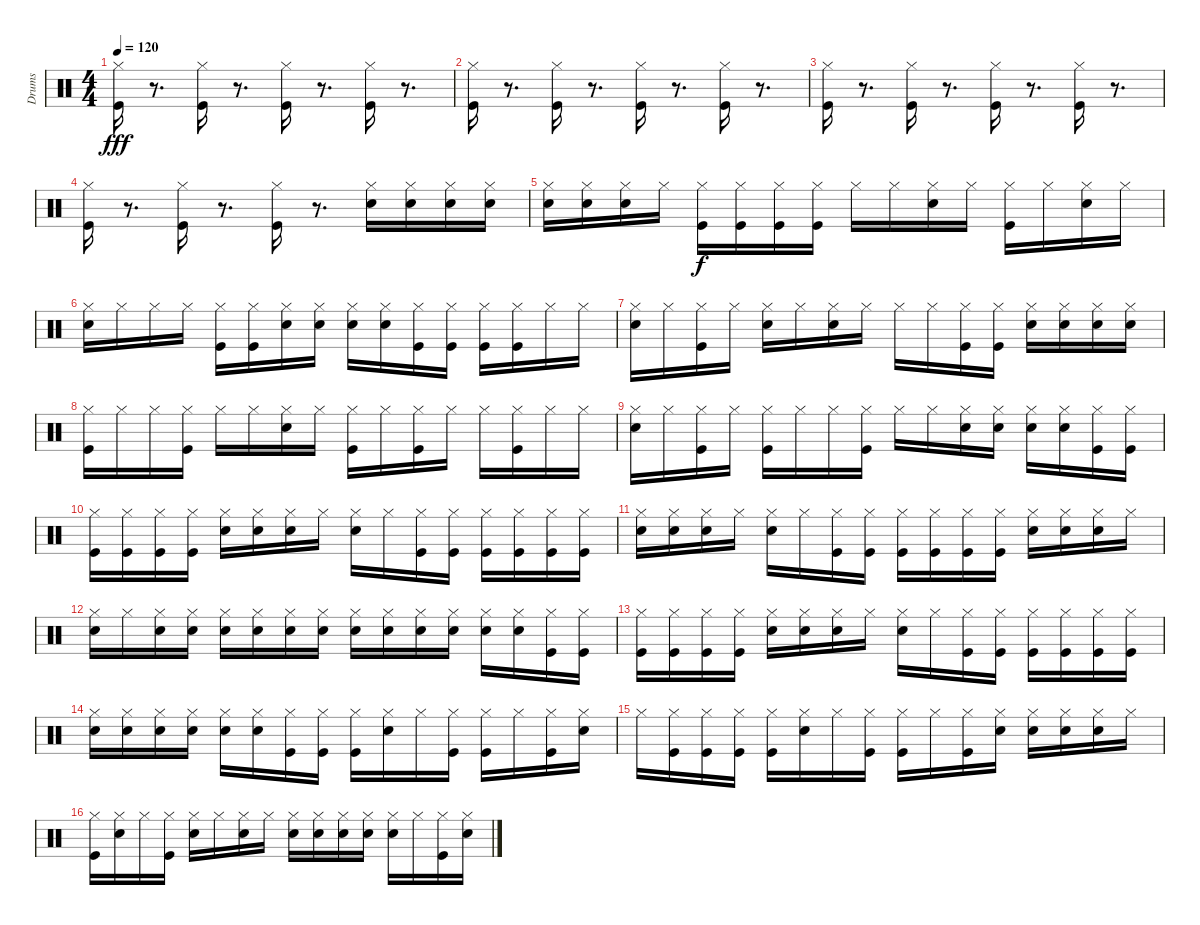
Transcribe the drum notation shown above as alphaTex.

\track ("Drums" "Drums") {instrument percussion}
\staff {score}
\articulation defaults
\ts (4 4)
\tempo 120
\clef neutral
\ks c
("Kick (hit)" "Hi-Hat (closed)").16{dy fff} r.8{d} ("Kick (hit)" "Hi-Hat (closed)").16 r.8{d} ("Kick (hit)" "Hi-Hat (closed)").16 r.8{d} ("Kick (hit)" "Hi-Hat (closed)").16 r.8{d} |
("Kick (hit)" "Hi-Hat (closed)").16 r.8{d} ("Kick (hit)" "Hi-Hat (closed)").16 r.8{d} ("Kick (hit)" "Hi-Hat (closed)").16 r.8{d} ("Kick (hit)" "Hi-Hat (closed)").16 r.8{d} |
("Kick (hit)" "Hi-Hat (closed)").16 r.8{d} ("Kick (hit)" "Hi-Hat (closed)").16 r.8{d} ("Kick (hit)" "Hi-Hat (closed)").16 r.8{d} ("Kick (hit)" "Hi-Hat (closed)").16 r.8{d} |
("Kick (hit)" "Hi-Hat (closed)").16 r.8{d} ("Kick (hit)" "Hi-Hat (closed)").16 r.8{d} ("Kick (hit)" "Hi-Hat (closed)").16 r.8{d} ("Hi-Hat (closed)" "Snare (hit) 2").16 ("Hi-Hat (closed)" "Snare (hit) 2").16 ("Hi-Hat (closed)" "Snare (hit) 2").16 ("Hi-Hat (closed)" "Snare (hit) 2").16 |
("Hi-Hat (closed)" "Snare (hit) 2").16 ("Hi-Hat (closed)" "Snare (hit) 2").16 ("Hi-Hat (closed)" "Snare (hit) 2").16 "Hi-Hat (closed)".16 ("Kick (hit)" "Hi-Hat (closed)").16{dy f} ("Kick (hit)" "Hi-Hat (closed)").16 ("Kick (hit)" "Hi-Hat (closed)").16 ("Kick (hit)" "Hi-Hat (closed)").16 "Hi-Hat (closed)".16 "Hi-Hat (closed)".16 ("Snare (hit) 2" "Hi-Hat (closed)").16 "Hi-Hat (closed)".16 ("Kick (hit)" "Hi-Hat (closed)").16 "Hi-Hat (closed)".16 ("Snare (hit) 2" "Hi-Hat (closed)").16 "Hi-Hat (closed)".16 |
("Snare (hit) 2" "Hi-Hat (closed)").16 "Hi-Hat (closed)".16 "Hi-Hat (closed)".16 "Hi-Hat (closed)".16 ("Kick (hit)" "Hi-Hat (closed)").16 ("Kick (hit)" "Hi-Hat (closed)").16 ("Snare (hit) 2" "Hi-Hat (closed)").16 ("Snare (hit) 2" "Hi-Hat (closed)").16 ("Snare (hit) 2" "Hi-Hat (closed)").16 ("Snare (hit) 2" "Hi-Hat (closed)").16 ("Kick (hit)" "Hi-Hat (closed)").16 ("Kick (hit)" "Hi-Hat (closed)").16 ("Kick (hit)" "Hi-Hat (closed)").16 ("Kick (hit)" "Hi-Hat (closed)").16 "Hi-Hat (closed)".16 "Hi-Hat (closed)".16 |
("Snare (hit) 2" "Hi-Hat (closed)").16 "Hi-Hat (closed)".16 ("Kick (hit)" "Hi-Hat (closed)").16 "Hi-Hat (closed)".16 ("Snare (hit) 2" "Hi-Hat (closed)").16 "Hi-Hat (closed)".16 ("Snare (hit) 2" "Hi-Hat (closed)").16 "Hi-Hat (closed)".16 "Hi-Hat (closed)".16 "Hi-Hat (closed)".16 ("Kick (hit)" "Hi-Hat (closed)").16 ("Kick (hit)" "Hi-Hat (closed)").16 ("Snare (hit) 2" "Hi-Hat (closed)").16 ("Snare (hit) 2" "Hi-Hat (closed)").16 ("Snare (hit) 2" "Hi-Hat (closed)").16 ("Snare (hit) 2" "Hi-Hat (closed)").16 |
("Hi-Hat (closed)" "Kick (hit)").16 "Hi-Hat (closed)".16 "Hi-Hat (closed)".16 ("Kick (hit)" "Hi-Hat (closed)").16 "Hi-Hat (closed)".16 "Hi-Hat (closed)".16 ("Snare (hit) 2" "Hi-Hat (closed)").16 "Hi-Hat (closed)".16 ("Kick (hit)" "Hi-Hat (closed)").16 "Hi-Hat (closed)".16 ("Hi-Hat (closed)" "Kick (hit)").16 "Hi-Hat (closed)".16 "Hi-Hat (closed)".16 ("Kick (hit)" "Hi-Hat (closed)").16 "Hi-Hat (closed)".16 "Hi-Hat (closed)".16 |
("Snare (hit) 2" "Hi-Hat (closed)").16 "Hi-Hat (closed)".16 ("Kick (hit)" "Hi-Hat (closed)").16 "Hi-Hat (closed)".16 ("Hi-Hat (closed)" "Kick (hit)").16 "Hi-Hat (closed)".16 "Hi-Hat (closed)".16 ("Kick (hit)" "Hi-Hat (closed)").16 "Hi-Hat (closed)".16 "Hi-Hat (closed)".16 ("Hi-Hat (closed)" "Snare (hit) 2").16 ("Hi-Hat (closed)" "Snare (hit) 2").16 ("Hi-Hat (closed)" "Snare (hit) 2").16 ("Hi-Hat (closed)" "Snare (hit) 2").16 ("Hi-Hat (closed)" "Kick (hit)").16 ("Kick (hit)" "Hi-Hat (closed)").16 |
("Kick (hit)" "Hi-Hat (closed)").16 ("Kick (hit)" "Hi-Hat (closed)").16 ("Kick (hit)" "Hi-Hat (closed)").16 ("Kick (hit)" "Hi-Hat (closed)").16 ("Snare (hit) 2" "Hi-Hat (closed)").16 ("Snare (hit) 2" "Hi-Hat (closed)").16 ("Snare (hit) 2" "Hi-Hat (closed)").16 "Hi-Hat (closed)".16 ("Snare (hit) 2" "Hi-Hat (closed)").16 "Hi-Hat (closed)".16 ("Hi-Hat (closed)" "Kick (hit)").16 ("Kick (hit)" "Hi-Hat (closed)").16 ("Kick (hit)" "Hi-Hat (closed)").16 ("Kick (hit)" "Hi-Hat (closed)").16 ("Kick (hit)" "Hi-Hat (closed)").16 ("Kick (hit)" "Hi-Hat (closed)").16 |
("Snare (hit) 2" "Hi-Hat (closed)").16 ("Snare (hit) 2" "Hi-Hat (closed)").16 ("Snare (hit) 2" "Hi-Hat (closed)").16 "Hi-Hat (closed)".16 ("Snare (hit) 2" "Hi-Hat (closed)").16 "Hi-Hat (closed)".16 ("Hi-Hat (closed)" "Kick (hit)").16 ("Kick (hit)" "Hi-Hat (closed)").16 ("Kick (hit)" "Hi-Hat (closed)").16 ("Kick (hit)" "Hi-Hat (closed)").16 ("Kick (hit)" "Hi-Hat (closed)").16 ("Kick (hit)" "Hi-Hat (closed)").16 ("Snare (hit) 2" "Hi-Hat (closed)").16 ("Snare (hit) 2" "Hi-Hat (closed)").16 ("Snare (hit) 2" "Hi-Hat (closed)").16 "Hi-Hat (closed)".16 |
("Snare (hit) 2" "Hi-Hat (closed)").16 "Hi-Hat (closed)".16 ("Hi-Hat (closed)" "Snare (hit) 2").16 ("Hi-Hat (closed)" "Snare (hit) 2").16 ("Hi-Hat (closed)" "Snare (hit) 2").16 ("Hi-Hat (closed)" "Snare (hit) 2").16 ("Hi-Hat (closed)" "Snare (hit) 2").16 ("Hi-Hat (closed)" "Snare (hit) 2").16 ("Hi-Hat (closed)" "Snare (hit) 2").16 ("Hi-Hat (closed)" "Snare (hit) 2").16 ("Hi-Hat (closed)" "Snare (hit) 2").16 ("Hi-Hat (closed)" "Snare (hit) 2").16 ("Hi-Hat (closed)" "Snare (hit) 2").16 ("Hi-Hat (closed)" "Snare (hit) 2").16 ("Hi-Hat (closed)" "Kick (hit)").16 ("Kick (hit)" "Hi-Hat (closed)").16 |
("Kick (hit)" "Hi-Hat (closed)").16 ("Kick (hit)" "Hi-Hat (closed)").16 ("Kick (hit)" "Hi-Hat (closed)").16 ("Kick (hit)" "Hi-Hat (closed)").16 ("Snare (hit) 2" "Hi-Hat (closed)").16 ("Snare (hit) 2" "Hi-Hat (closed)").16 ("Snare (hit) 2" "Hi-Hat (closed)").16 "Hi-Hat (closed)".16 ("Snare (hit) 2" "Hi-Hat (closed)").16 "Hi-Hat (closed)".16 ("Hi-Hat (closed)" "Kick (hit)").16 ("Kick (hit)" "Hi-Hat (closed)").16 ("Kick (hit)" "Hi-Hat (closed)").16 ("Kick (hit)" "Hi-Hat (closed)").16 ("Kick (hit)" "Hi-Hat (closed)").16 ("Kick (hit)" "Hi-Hat (closed)").16 |
("Hi-Hat (closed)" "Snare (hit) 2").16 ("Hi-Hat (closed)" "Snare (hit) 2").16 ("Hi-Hat (closed)" "Snare (hit) 2").16 ("Hi-Hat (closed)" "Snare (hit) 2").16 ("Hi-Hat (closed)" "Snare (hit) 2").16 ("Hi-Hat (closed)" "Snare (hit) 2").16 ("Hi-Hat (closed)" "Kick (hit)").16 ("Kick (hit)" "Hi-Hat (closed)").16 ("Kick (hit)" "Hi-Hat (closed)").16 ("Snare (hit) 2" "Hi-Hat (closed)").16 "Hi-Hat (closed)".16 ("Kick (hit)" "Hi-Hat (closed)").16 ("Kick (hit)" "Hi-Hat (closed)").16 "Hi-Hat (closed)".16 ("Kick (hit)" "Hi-Hat (closed)").16 ("Snare (hit) 2" "Hi-Hat (closed)").16 |
"Hi-Hat (closed)".16 ("Kick (hit)" "Hi-Hat (closed)").16 ("Hi-Hat (closed)" "Kick (hit)").16 ("Kick (hit)" "Hi-Hat (closed)").16 ("Kick (hit)" "Hi-Hat (closed)").16 ("Snare (hit) 2" "Hi-Hat (closed)").16 "Hi-Hat (closed)".16 ("Kick (hit)" "Hi-Hat (closed)").16 ("Kick (hit)" "Hi-Hat (closed)").16 "Hi-Hat (closed)".16 ("Kick (hit)" "Hi-Hat (closed)").16 ("Hi-Hat (closed)" "Snare (hit) 2").16 ("Hi-Hat (closed)" "Snare (hit) 2").16 ("Hi-Hat (closed)" "Snare (hit) 2").16 ("Snare (hit) 2" "Hi-Hat (closed)").16 "Hi-Hat (closed)".16 |
("Kick (hit)" "Hi-Hat (closed)").16 ("Snare (hit) 2" "Hi-Hat (closed)").16 "Hi-Hat (closed)".16 ("Kick (hit)" "Hi-Hat (closed)").16 ("Snare (hit) 2" "Hi-Hat (closed)").16 "Hi-Hat (closed)".16 ("Snare (hit) 2" "Hi-Hat (closed)").16 "Hi-Hat (closed)".16 ("Snare (hit) 2" "Hi-Hat (closed)").16 ("Snare (hit) 2" "Hi-Hat (closed)").16 ("Snare (hit) 2" "Hi-Hat (closed)").16 ("Snare (hit) 2" "Hi-Hat (closed)").16 ("Snare (hit) 2" "Hi-Hat (closed)").16 "Hi-Hat (closed)".16 ("Kick (hit)" "Hi-Hat (closed)").16 ("Snare (hit) 2" "Hi-Hat (closed)").16
